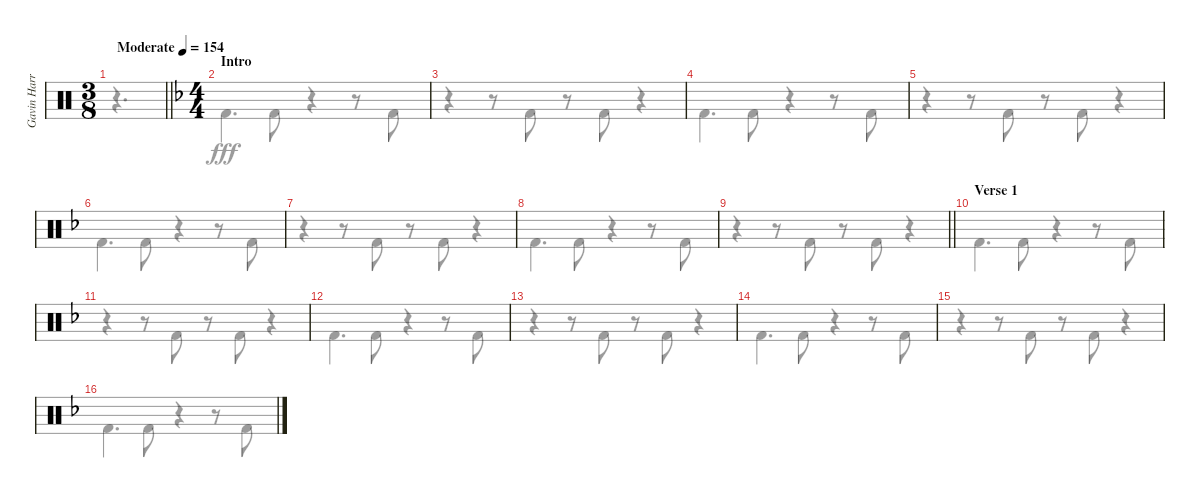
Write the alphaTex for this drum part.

\track ("Gavin Harrison Bass Pedal" "Gavin Harr") {instrument percussion}
\staff {score}
\articulation defaults
\voice
\ts (3 8)
\tempo (154 "Moderate")
\clef neutral
\barLineRight lightlight
\ks c
|
\ts (4 4)
\section ("" "Intro")
\ks dminor
|
|
|
|
|
|
|
\barLineRight lightlight
|
\section ("" "Verse 1")
|
|
|
|
|
|
\voice
\clef neutral
\barLineRight lightlight
\ks c
r.4{d dy fff} |
\ks dminor "Kick (hit) 2".4{d} "Kick (hit) 2".8
r.4 r.8 "Kick (hit) 2".8 |
r.4 r.8 "Kick (hit) 2".8 r.8 "Kick (hit) 2".8 r.4 |
"Kick (hit) 2".4{d} "Kick (hit) 2".8 r.4 r.8 "Kick (hit) 2".8 |
r.4 r.8 "Kick (hit) 2".8 r.8 "Kick (hit) 2".8 r.4 |
"Kick (hit) 2".4{d} "Kick (hit) 2".8 r.4 r.8 "Kick (hit) 2".8 |
r.4 r.8 "Kick (hit) 2".8 r.8 "Kick (hit) 2".8 r.4 |
"Kick (hit) 2".4{d} "Kick (hit) 2".8 r.4 r.8 "Kick (hit) 2".8 |
\barLineRight lightlight
r.4 r.8 "Kick (hit) 2".8 r.8 "Kick (hit) 2".8 r.4 |
"Kick (hit) 2".4{d} "Kick (hit) 2".8 r.4 r.8 "Kick (hit) 2".8 |
r.4 r.8 "Kick (hit) 2".8 r.8 "Kick (hit) 2".8 r.4 |
"Kick (hit) 2".4{d} "Kick (hit) 2".8 r.4 r.8 "Kick (hit) 2".8 |
r.4 r.8 "Kick (hit) 2".8 r.8 "Kick (hit) 2".8 r.4 |
"Kick (hit) 2".4{d} "Kick (hit) 2".8 r.4 r.8 "Kick (hit) 2".8 |
r.4 r.8 "Kick (hit) 2".8 r.8 "Kick (hit) 2".8 r.4 |
"Kick (hit) 2".4{d} "Kick (hit) 2".8 r.4 r.8 "Kick (hit) 2".8
